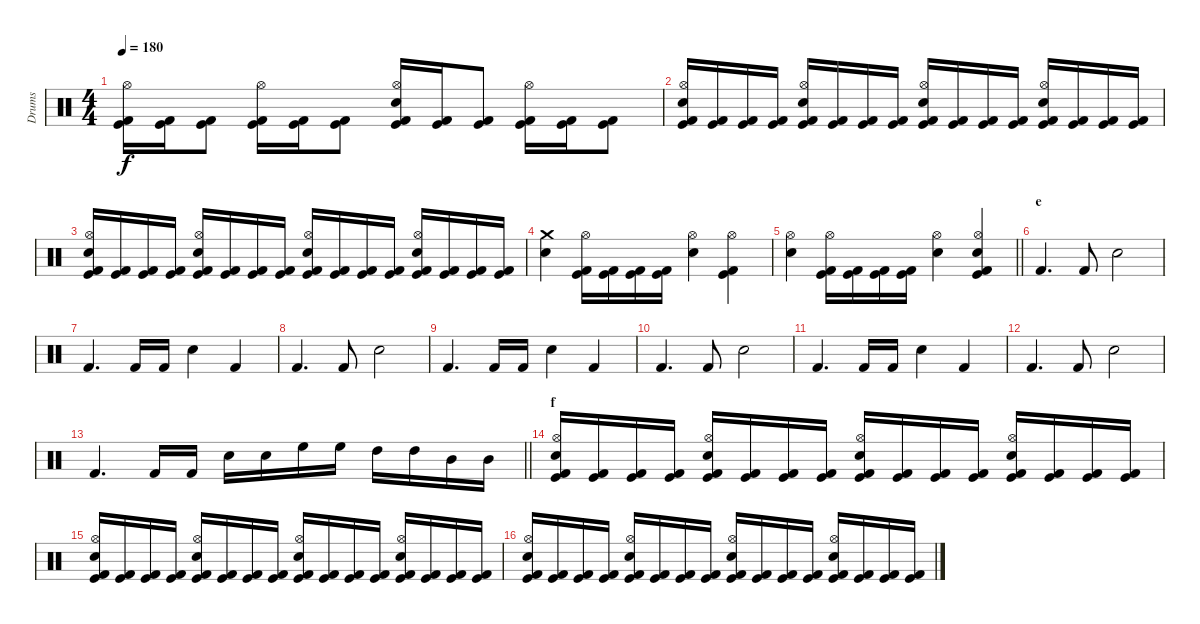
\track ("Drums" "Drums") {instrument percussion}
\staff {score}
\articulation defaults
\ts (4 4)
\tempo 180
\clef neutral
\ks c
("Kick (hit) 2" "Kick (hit)" "Hi-Hat (open)").16{dy f} ("Kick (hit) 2" "Kick (hit)").16 ("Kick (hit) 2" "Kick (hit)").8 ("Kick (hit) 2" "Kick (hit)" "Hi-Hat (open)").16 ("Kick (hit) 2" "Kick (hit)").16 ("Kick (hit) 2" "Kick (hit)").8 ("Kick (hit) 2" "Kick (hit)" "Hi-Hat (open)" "Electric Snare (hit)").16 ("Kick (hit) 2" "Kick (hit)").16 ("Kick (hit) 2" "Kick (hit)").8 ("Kick (hit) 2" "Kick (hit)" "Hi-Hat (open)").16 ("Kick (hit) 2" "Kick (hit)").16 ("Kick (hit) 2" "Kick (hit)").8 |
("Kick (hit)" "Kick (hit) 2" "Hi-Hat (open)" "Electric Snare (hit)").16 ("Kick (hit)" "Kick (hit) 2").16 ("Kick (hit)" "Kick (hit) 2").16 ("Kick (hit)" "Kick (hit) 2").16 ("Kick (hit)" "Kick (hit) 2" "Hi-Hat (open)" "Electric Snare (hit)").16 ("Kick (hit)" "Kick (hit) 2").16 ("Kick (hit)" "Kick (hit) 2").16 ("Kick (hit)" "Kick (hit) 2").16 ("Kick (hit)" "Kick (hit) 2" "Hi-Hat (open)" "Electric Snare (hit)").16 ("Kick (hit)" "Kick (hit) 2").16 ("Kick (hit)" "Kick (hit) 2").16 ("Kick (hit)" "Kick (hit) 2").16 ("Kick (hit)" "Kick (hit) 2" "Hi-Hat (open)" "Electric Snare (hit)").16 ("Kick (hit)" "Kick (hit) 2").16 ("Kick (hit)" "Kick (hit) 2").16 ("Kick (hit)" "Kick (hit) 2").16 |
("Kick (hit)" "Kick (hit) 2" "Hi-Hat (open)" "Electric Snare (hit)").16 ("Kick (hit)" "Kick (hit) 2").16 ("Kick (hit)" "Kick (hit) 2").16 ("Kick (hit)" "Kick (hit) 2").16 ("Kick (hit)" "Kick (hit) 2" "Hi-Hat (open)" "Electric Snare (hit)").16 ("Kick (hit)" "Kick (hit) 2").16 ("Kick (hit)" "Kick (hit) 2").16 ("Kick (hit)" "Kick (hit) 2").16 ("Kick (hit)" "Kick (hit) 2" "Hi-Hat (open)" "Electric Snare (hit)").16 ("Kick (hit)" "Kick (hit) 2").16 ("Kick (hit)" "Kick (hit) 2").16 ("Kick (hit)" "Kick (hit) 2").16 ("Kick (hit)" "Kick (hit) 2" "Hi-Hat (open)" "Electric Snare (hit)").16 ("Kick (hit)" "Kick (hit) 2").16 ("Kick (hit)" "Kick (hit) 2").16 ("Kick (hit)" "Kick (hit) 2").16 |
("Electric Snare (hit)" "Crash medium (hit)").4 ("Kick (hit) 2" "Hi-Hat (open)" "Kick (hit)").16 ("Kick (hit) 2" "Kick (hit)").16 ("Kick (hit) 2" "Kick (hit)").16 ("Kick (hit) 2" "Kick (hit)").16 ("Electric Snare (hit)" "Hi-Hat (open)").4 ("Kick (hit) 2" "Hi-Hat (open)" "Kick (hit)").4 |
\barLineRight lightlight
("Electric Snare (hit)" "Hi-Hat (open)").4 ("Kick (hit) 2" "Hi-Hat (open)" "Kick (hit)").16 ("Kick (hit) 2" "Kick (hit)").16 ("Kick (hit) 2" "Kick (hit)").16 ("Kick (hit) 2" "Kick (hit)").16 ("Electric Snare (hit)" "Hi-Hat (open)").4 ("Kick (hit) 2" "Electric Snare (hit)" "Hi-Hat (open)" "Kick (hit)").4 |
\section ("" "e")
"Kick (hit) 2".4{d} "Kick (hit) 2".8 "Electric Snare (hit)".2 |
"Kick (hit) 2".4{d} "Kick (hit) 2".16 "Kick (hit) 2".16 "Electric Snare (hit)".4 "Kick (hit) 2".4 |
"Kick (hit) 2".4{d} "Kick (hit) 2".8 "Electric Snare (hit)".2 |
"Kick (hit) 2".4{d} "Kick (hit) 2".16 "Kick (hit) 2".16 "Electric Snare (hit)".4 "Kick (hit) 2".4 |
"Kick (hit) 2".4{d} "Kick (hit) 2".8 "Electric Snare (hit)".2 |
"Kick (hit) 2".4{d} "Kick (hit) 2".16 "Kick (hit) 2".16 "Electric Snare (hit)".4 "Kick (hit) 2".4 |
"Kick (hit) 2".4{d} "Kick (hit) 2".8 "Electric Snare (hit)".2 |
\barLineRight lightlight "Kick (hit) 2".4{d} "Kick (hit) 2".16 "Kick (hit) 2".16 "Electric Snare (hit)".16 "Electric Snare (hit)".16 "High Floor Tom (hit)".16 "High Floor Tom (hit)".16 "High Tom (hit)".16 "High Tom (hit)".16 "Mid Tom (hit)".16 "Mid Tom (hit)".16
|
\section ("" "f")
("Kick (hit)" "Kick (hit) 2" "Hi-Hat (open)" "Electric Snare (hit)").16 ("Kick (hit)" "Kick (hit) 2").16 ("Kick (hit)" "Kick (hit) 2").16 ("Kick (hit)" "Kick (hit) 2").16 ("Kick (hit)" "Kick (hit) 2" "Hi-Hat (open)" "Electric Snare (hit)").16 ("Kick (hit)" "Kick (hit) 2").16 ("Kick (hit)" "Kick (hit) 2").16 ("Kick (hit)" "Kick (hit) 2").16 ("Kick (hit)" "Kick (hit) 2" "Hi-Hat (open)" "Electric Snare (hit)").16 ("Kick (hit)" "Kick (hit) 2").16 ("Kick (hit)" "Kick (hit) 2").16 ("Kick (hit)" "Kick (hit) 2").16 ("Kick (hit)" "Kick (hit) 2" "Hi-Hat (open)" "Electric Snare (hit)").16 ("Kick (hit)" "Kick (hit) 2").16 ("Kick (hit)" "Kick (hit) 2").16 ("Kick (hit)" "Kick (hit) 2").16 |
("Kick (hit)" "Kick (hit) 2" "Hi-Hat (open)" "Electric Snare (hit)").16 ("Kick (hit)" "Kick (hit) 2").16 ("Kick (hit)" "Kick (hit) 2").16 ("Kick (hit)" "Kick (hit) 2").16 ("Kick (hit)" "Kick (hit) 2" "Hi-Hat (open)" "Electric Snare (hit)").16 ("Kick (hit)" "Kick (hit) 2").16 ("Kick (hit)" "Kick (hit) 2").16 ("Kick (hit)" "Kick (hit) 2").16 ("Kick (hit)" "Kick (hit) 2" "Hi-Hat (open)" "Electric Snare (hit)").16 ("Kick (hit)" "Kick (hit) 2").16 ("Kick (hit)" "Kick (hit) 2").16 ("Kick (hit)" "Kick (hit) 2").16 ("Kick (hit)" "Kick (hit) 2" "Hi-Hat (open)" "Electric Snare (hit)").16 ("Kick (hit)" "Kick (hit) 2").16 ("Kick (hit)" "Kick (hit) 2").16 ("Kick (hit)" "Kick (hit) 2").16 |
("Kick (hit)" "Kick (hit) 2" "Hi-Hat (open)" "Electric Snare (hit)").16 ("Kick (hit)" "Kick (hit) 2").16 ("Kick (hit)" "Kick (hit) 2").16 ("Kick (hit)" "Kick (hit) 2").16 ("Kick (hit)" "Kick (hit) 2" "Hi-Hat (open)" "Electric Snare (hit)").16 ("Kick (hit)" "Kick (hit) 2").16 ("Kick (hit)" "Kick (hit) 2").16 ("Kick (hit)" "Kick (hit) 2").16 ("Kick (hit)" "Kick (hit) 2" "Hi-Hat (open)" "Electric Snare (hit)").16 ("Kick (hit)" "Kick (hit) 2").16 ("Kick (hit)" "Kick (hit) 2").16 ("Kick (hit)" "Kick (hit) 2").16 ("Kick (hit)" "Kick (hit) 2" "Hi-Hat (open)" "Electric Snare (hit)").16 ("Kick (hit)" "Kick (hit) 2").16 ("Kick (hit)" "Kick (hit) 2").16 ("Kick (hit)" "Kick (hit) 2").16
